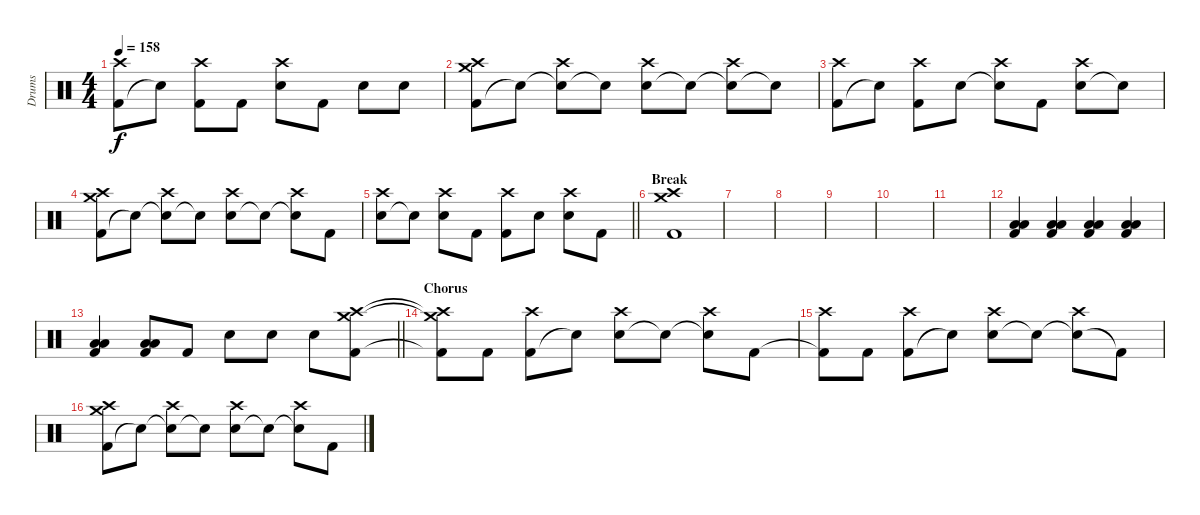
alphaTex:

\track ("Drums" "Drums") {instrument percussion}
\staff {score}
\articulation defaults
\ts (4 4)
\tempo 158
\clef neutral
\ks c
("Kick (hit) 2" "Crash high (hit)").8{dy f} "Snare (hit)"{t}.8 ("Kick (hit) 2" "Crash high (hit)").8 "Kick (hit) 2".8 ("Electric Snare (hit)" "Crash high (hit)").8 "Kick (hit) 2".8 "Electric Snare (hit)".8 "Electric Snare (hit)".8 |
("Kick (hit) 2" "Crash medium (hit)" "Crash high (hit)").8 "Snare (hit)"{t}.8 ("Snare (hit)"{t} "Crash high (hit)").8 "Snare (hit)"{t}.8 ("Electric Snare (hit)" "Crash high (hit)").8 "Snare (hit)"{t}.8 ("Snare (hit)"{t} "Crash high (hit)").8 "Snare (hit)"{t}.8 |
("Kick (hit) 2" "Crash high (hit)").8 "Snare (hit)"{t}.8 ("Kick (hit) 2" "Crash high (hit)").8 "Electric Snare (hit)".8 ("Snare (hit)"{t} "Crash high (hit)").8 "Kick (hit) 2".8 ("Electric Snare (hit)" "Crash high (hit)").8 "Snare (hit)"{t}.8 |
("Kick (hit) 2" "Crash medium (hit)" "Crash high (hit)").8 "Snare (hit)"{t}.8 ("Snare (hit)"{t} "Crash high (hit)").8 "Snare (hit)"{t}.8 ("Electric Snare (hit)" "Crash high (hit)").8 "Snare (hit)"{t}.8 ("Snare (hit)"{t} "Crash high (hit)").8 "Kick (hit) 2".8 |
\barLineRight lightlight
("Electric Snare (hit)" "Crash high (hit)").8 "Electric Snare (hit)"{t}.8 ("Electric Snare (hit)" "Crash high (hit)").8 "Kick (hit) 2".8 ("Kick (hit) 2" "Crash high (hit)").8 "Electric Snare (hit)".8 ("Electric Snare (hit)" "Crash high (hit)").8 "Kick (hit) 2".8 |
\section ("" "Break")
("Kick (hit) 2" "Crash medium (hit)" "Crash high (hit)").1 |
|
|
|
|
|
("Low Tom (hit)" "Low Floor Tom (hit)" "Kick (hit) 2").4 ("Low Tom (hit)" "Low Floor Tom (hit)" "Kick (hit) 2").4 ("Low Tom (hit)" "Low Floor Tom (hit)" "Kick (hit) 2").4 ("Low Tom (hit)" "Low Floor Tom (hit)" "Kick (hit) 2").4 |
\barLineRight lightlight
("Low Tom (hit)" "Low Floor Tom (hit)" "Kick (hit) 2").4 ("Kick (hit) 2" "Low Floor Tom (hit)" "Low Tom (hit)").8 "Kick (hit) 2".8 "Electric Snare (hit)".8 "Electric Snare (hit)".8 "Electric Snare (hit)".8 ("Kick (hit) 2" "Crash medium (hit)" "Crash high (hit)").8 |
\section ("" "Chorus")
("Kick (hit) 2"{t} "Crash medium (hit)"{t} "Crash high (hit)"{t}).8 "Kick (hit) 2".8 ("Kick (hit) 2" "Crash high (hit)").8 "Snare (hit)"{t}.8 ("Electric Snare (hit)" "Crash high (hit)").8 "Snare (hit)"{t}.8 ("Snare (hit)"{t} "Crash high (hit)").8 "Kick (hit) 2".8 |
("Kick (hit) 2"{t} "Crash high (hit)").8 "Kick (hit) 2".8 ("Kick (hit) 2" "Crash high (hit)").8 "Snare (hit)"{t}.8 ("Electric Snare (hit)" "Crash high (hit)").8 "Snare (hit)"{t}.8 ("Snare (hit)"{t} "Crash high (hit)").8 "Kick (hit) 2"{t}.8 |
("Kick (hit) 2" "Crash medium (hit)" "Crash high (hit)").8 "Snare (hit)"{t}.8 ("Snare (hit)"{t} "Crash high (hit)").8 "Snare (hit)"{t}.8 ("Electric Snare (hit)" "Crash high (hit)").8 "Snare (hit)"{t}.8 ("Snare (hit)"{t} "Crash high (hit)").8 "Kick (hit) 2".8
